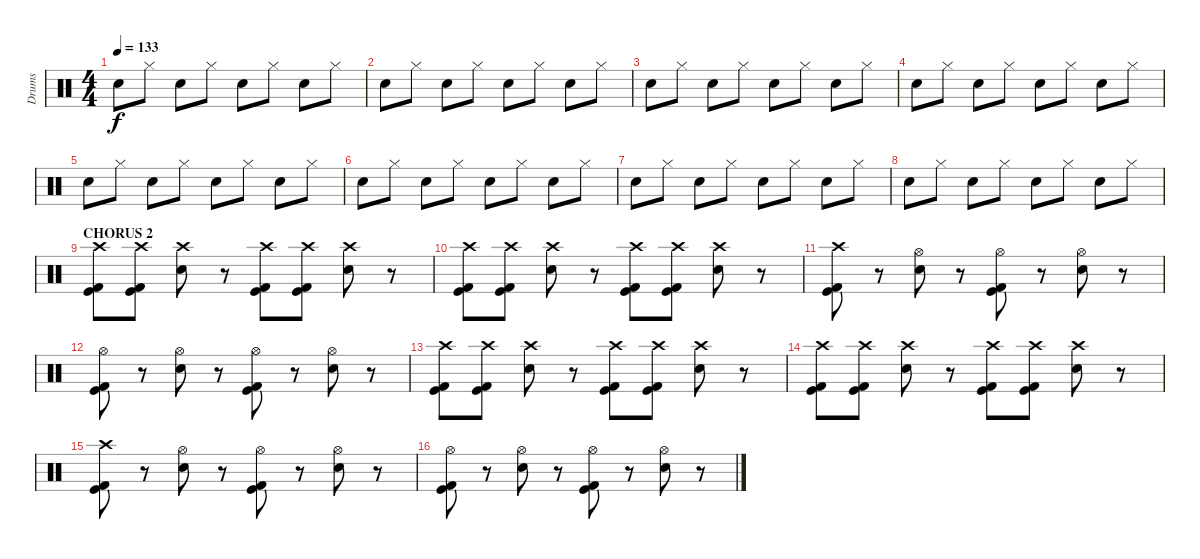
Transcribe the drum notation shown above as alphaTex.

\track ("Drums" "Drums") {instrument percussion}
\staff {score}
\articulation defaults
\ts (4 4)
\tempo 133
\clef neutral
\ks c "Electric Snare (hit)".8{dy f} "Hi-Hat (closed)".8 "Electric Snare (hit)".8 "Hi-Hat (closed)".8 "Electric Snare (hit)".8 "Hi-Hat (closed)".8 "Electric Snare (hit)".8 "Hi-Hat (closed)".8
|
"Electric Snare (hit)".8 "Hi-Hat (closed)".8 "Electric Snare (hit)".8 "Hi-Hat (closed)".8 "Electric Snare (hit)".8 "Hi-Hat (closed)".8 "Electric Snare (hit)".8 "Hi-Hat (closed)".8 |
"Electric Snare (hit)".8 "Hi-Hat (closed)".8 "Electric Snare (hit)".8 "Hi-Hat (closed)".8 "Electric Snare (hit)".8 "Hi-Hat (closed)".8 "Electric Snare (hit)".8 "Hi-Hat (closed)".8 |
"Electric Snare (hit)".8 "Hi-Hat (closed)".8 "Electric Snare (hit)".8 "Hi-Hat (closed)".8 "Electric Snare (hit)".8 "Hi-Hat (closed)".8 "Electric Snare (hit)".8 "Hi-Hat (closed)".8 |
"Electric Snare (hit)".8 "Hi-Hat (closed)".8 "Electric Snare (hit)".8 "Hi-Hat (closed)".8 "Electric Snare (hit)".8 "Hi-Hat (closed)".8 "Electric Snare (hit)".8 "Hi-Hat (closed)".8 |
"Electric Snare (hit)".8 "Hi-Hat (closed)".8 "Electric Snare (hit)".8 "Hi-Hat (closed)".8 "Electric Snare (hit)".8 "Hi-Hat (closed)".8 "Electric Snare (hit)".8 "Hi-Hat (closed)".8 |
"Electric Snare (hit)".8 "Hi-Hat (closed)".8 "Electric Snare (hit)".8 "Hi-Hat (closed)".8 "Electric Snare (hit)".8 "Hi-Hat (closed)".8 "Electric Snare (hit)".8 "Hi-Hat (closed)".8 |
"Electric Snare (hit)".8 "Hi-Hat (closed)".8 "Electric Snare (hit)".8 "Hi-Hat (closed)".8 "Electric Snare (hit)".8 "Hi-Hat (closed)".8 "Electric Snare (hit)".8 "Hi-Hat (closed)".8 |
\section ("" "CHORUS 2")
("Crash high (hit)" "Kick (hit) 2" "Kick (hit)").8 ("Crash high (hit)" "Kick (hit) 2" "Kick (hit)").8 ("Crash high (hit)" "Electric Snare (hit)").8 r.8 ("Crash high (hit)" "Kick (hit) 2" "Kick (hit)").8 ("Crash high (hit)" "Kick (hit) 2" "Kick (hit)").8 ("Crash high (hit)" "Electric Snare (hit)").8 r.8 |
("Crash high (hit)" "Kick (hit) 2" "Kick (hit)").8 ("Crash high (hit)" "Kick (hit) 2" "Kick (hit)").8 ("Crash high (hit)" "Electric Snare (hit)").8 r.8 ("Crash high (hit)" "Kick (hit) 2" "Kick (hit)").8 ("Crash high (hit)" "Kick (hit) 2" "Kick (hit)").8 ("Crash high (hit)" "Electric Snare (hit)").8 r.8 |
("Crash high (hit)" "Kick (hit) 2" "Kick (hit)").8 r.8 ("Hi-Hat (open)" "Electric Snare (hit)").8 r.8 ("Hi-Hat (open)" "Kick (hit) 2" "Kick (hit)").8 r.8 ("Hi-Hat (open)" "Electric Snare (hit)").8 r.8 |
("Hi-Hat (open)" "Kick (hit) 2" "Kick (hit)").8 r.8 ("Hi-Hat (open)" "Electric Snare (hit)").8 r.8 ("Hi-Hat (open)" "Kick (hit) 2" "Kick (hit)").8 r.8 ("Hi-Hat (open)" "Electric Snare (hit)").8 r.8 |
("Crash high (hit)" "Kick (hit) 2" "Kick (hit)").8 ("Crash high (hit)" "Kick (hit) 2" "Kick (hit)").8 ("Crash high (hit)" "Electric Snare (hit)").8 r.8 ("Crash high (hit)" "Kick (hit) 2" "Kick (hit)").8 ("Crash high (hit)" "Kick (hit) 2" "Kick (hit)").8 ("Crash high (hit)" "Electric Snare (hit)").8 r.8 |
("Crash high (hit)" "Kick (hit) 2" "Kick (hit)").8 ("Crash high (hit)" "Kick (hit) 2" "Kick (hit)").8 ("Crash high (hit)" "Electric Snare (hit)").8 r.8 ("Crash high (hit)" "Kick (hit) 2" "Kick (hit)").8 ("Crash high (hit)" "Kick (hit) 2" "Kick (hit)").8 ("Crash high (hit)" "Electric Snare (hit)").8 r.8 |
("Crash high (hit)" "Kick (hit) 2" "Kick (hit)").8 r.8 ("Hi-Hat (open)" "Electric Snare (hit)").8 r.8 ("Hi-Hat (open)" "Kick (hit) 2" "Kick (hit)").8 r.8 ("Hi-Hat (open)" "Electric Snare (hit)").8 r.8 |
("Hi-Hat (open)" "Kick (hit) 2" "Kick (hit)").8 r.8 ("Hi-Hat (open)" "Electric Snare (hit)").8 r.8 ("Hi-Hat (open)" "Kick (hit) 2" "Kick (hit)").8 r.8 ("Hi-Hat (open)" "Electric Snare (hit)").8 r.8
